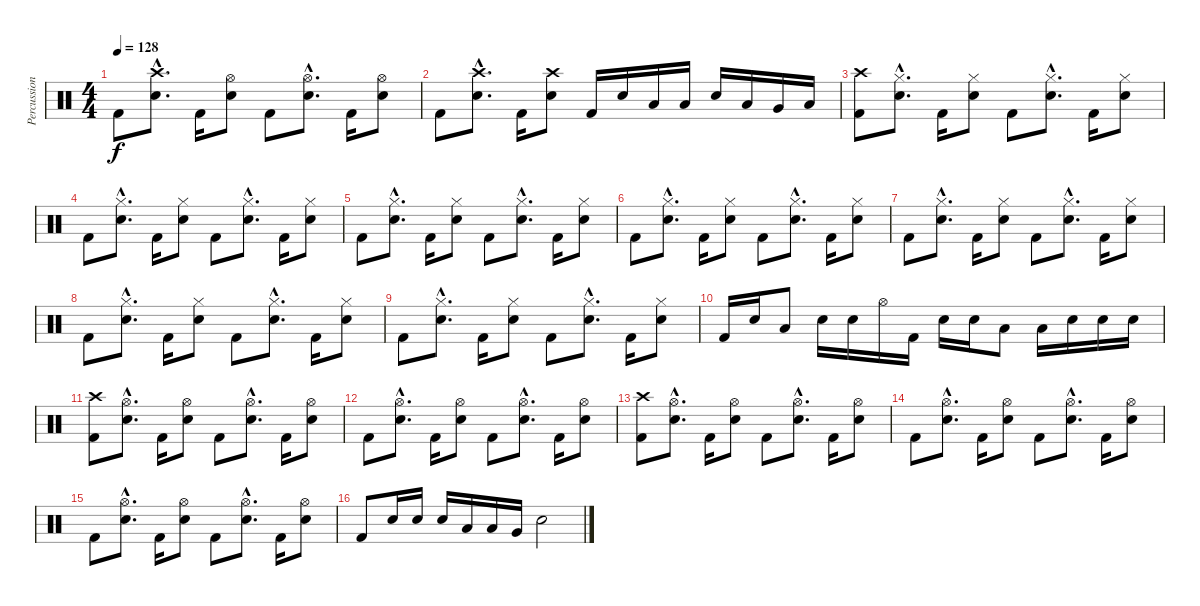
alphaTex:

\track ("Percussions" "Percussion") {instrument percussion}
\staff {score}
\articulation defaults
\ts (4 4)
\tempo 128
\clef neutral
\ks c "Kick (hit) 2".8{dy f}
("Crash high (hit)"{hac} "Electric Snare (hit)"{hac}).8{d} "Kick (hit) 2".16 ("Hi-Hat (open)" "Electric Snare (hit)").8 "Kick (hit) 2".8 ("Hi-Hat (open)"{hac} "Electric Snare (hit)"{hac}).8{d} "Kick (hit) 2".16 ("Hi-Hat (open)" "Electric Snare (hit)").8 |
"Kick (hit) 2".8 ("Crash high (hit)"{hac} "Electric Snare (hit)"{hac}).8{d} "Kick (hit) 2".16 ("Crash high (hit)" "Electric Snare (hit)").8 "Kick (hit) 2".16 "Electric Snare (hit)".16 "Low Tom (hit)".16 "Low Tom (hit)".16 "Electric Snare (hit)".16 "Low Tom (hit)".16 "Very Low Tom (hit)".16 "Low Floor Tom (hit)".16 |
("Crash high (hit)" "Kick (hit) 2").8 ("Hi-Hat (closed)"{hac} "Electric Snare (hit)"{hac}).8{d} "Kick (hit) 2".16 ("Hi-Hat (closed)" "Electric Snare (hit)").8 "Kick (hit) 2".8 ("Hi-Hat (closed)"{hac} "Electric Snare (hit)"{hac}).8{d} "Kick (hit) 2".16 ("Hi-Hat (closed)" "Electric Snare (hit)").8 |
"Kick (hit) 2".8 ("Hi-Hat (closed)"{hac} "Electric Snare (hit)"{hac}).8{d} "Kick (hit) 2".16 ("Hi-Hat (closed)" "Electric Snare (hit)").8 "Kick (hit) 2".8 ("Hi-Hat (closed)"{hac} "Electric Snare (hit)"{hac}).8{d} "Kick (hit) 2".16 ("Hi-Hat (closed)" "Electric Snare (hit)").8 |
"Kick (hit) 2".8 ("Hi-Hat (closed)"{hac} "Electric Snare (hit)"{hac}).8{d} "Kick (hit) 2".16 ("Hi-Hat (closed)" "Electric Snare (hit)").8 "Kick (hit) 2".8 ("Hi-Hat (closed)"{hac} "Electric Snare (hit)"{hac}).8{d} "Kick (hit) 2".16 ("Hi-Hat (closed)" "Electric Snare (hit)").8 |
"Kick (hit) 2".8 ("Hi-Hat (closed)"{hac} "Electric Snare (hit)"{hac}).8{d} "Kick (hit) 2".16 ("Hi-Hat (closed)" "Electric Snare (hit)").8 "Kick (hit) 2".8 ("Hi-Hat (closed)"{hac} "Electric Snare (hit)"{hac}).8{d} "Kick (hit) 2".16 ("Hi-Hat (closed)" "Electric Snare (hit)").8 |
"Kick (hit) 2".8 ("Hi-Hat (closed)"{hac} "Electric Snare (hit)"{hac}).8{d} "Kick (hit) 2".16 ("Hi-Hat (closed)" "Electric Snare (hit)").8 "Kick (hit) 2".8 ("Hi-Hat (closed)"{hac} "Electric Snare (hit)"{hac}).8{d} "Kick (hit) 2".16 ("Hi-Hat (closed)" "Electric Snare (hit)").8 |
"Kick (hit) 2".8 ("Hi-Hat (closed)"{hac} "Electric Snare (hit)"{hac}).8{d} "Kick (hit) 2".16 ("Hi-Hat (closed)" "Electric Snare (hit)").8 "Kick (hit) 2".8 ("Hi-Hat (closed)"{hac} "Electric Snare (hit)"{hac}).8{d} "Kick (hit) 2".16 ("Hi-Hat (closed)" "Electric Snare (hit)").8 |
"Kick (hit) 2".8 ("Hi-Hat (closed)"{hac} "Electric Snare (hit)"{hac}).8{d} "Kick (hit) 2".16 ("Hi-Hat (closed)" "Electric Snare (hit)").8 "Kick (hit) 2".8 ("Hi-Hat (closed)"{hac} "Electric Snare (hit)"{hac}).8{d} "Kick (hit) 2".16 ("Hi-Hat (closed)" "Electric Snare (hit)").8 |
"Kick (hit) 2".16 "Electric Snare (hit)".16 "Low Tom (hit)".8 "Electric Snare (hit)".16 "Electric Snare (hit)".16 "Hi-Hat (open)".16 "Kick (hit) 2".16 "Electric Snare (hit)".16 "Electric Snare (hit)".16 "Low Tom (hit)".8 "Low Tom (hit)".16 "Electric Snare (hit)".16 "Electric Snare (hit)".16 "Electric Snare (hit)".16 |
("Crash high (hit)" "Kick (hit) 2").8 ("Hi-Hat (open)"{hac} "Electric Snare (hit)"{hac}).8{d} "Kick (hit) 2".16 ("Hi-Hat (open)" "Electric Snare (hit)").8 "Kick (hit) 2".8 ("Hi-Hat (open)"{hac} "Electric Snare (hit)"{hac}).8{d} "Kick (hit) 2".16 ("Hi-Hat (open)" "Electric Snare (hit)").8 |
"Kick (hit) 2".8 ("Hi-Hat (open)"{hac} "Electric Snare (hit)"{hac}).8{d} "Kick (hit) 2".16 ("Hi-Hat (open)" "Electric Snare (hit)").8 "Kick (hit) 2".8 ("Hi-Hat (open)"{hac} "Electric Snare (hit)"{hac}).8{d} "Kick (hit) 2".16 ("Hi-Hat (open)" "Electric Snare (hit)").8 |
("Crash high (hit)" "Kick (hit) 2").8 ("Hi-Hat (open)"{hac} "Electric Snare (hit)"{hac}).8{d} "Kick (hit) 2".16 ("Hi-Hat (open)" "Electric Snare (hit)").8 "Kick (hit) 2".8 ("Hi-Hat (open)"{hac} "Electric Snare (hit)"{hac}).8{d} "Kick (hit) 2".16 ("Hi-Hat (open)" "Electric Snare (hit)").8 |
"Kick (hit) 2".8 ("Hi-Hat (open)"{hac} "Electric Snare (hit)"{hac}).8{d} "Kick (hit) 2".16 ("Hi-Hat (open)" "Electric Snare (hit)").8 "Kick (hit) 2".8 ("Hi-Hat (open)"{hac} "Electric Snare (hit)"{hac}).8{d} "Kick (hit) 2".16 ("Hi-Hat (open)" "Electric Snare (hit)").8 |
"Kick (hit) 2".8 ("Hi-Hat (open)"{hac} "Electric Snare (hit)"{hac}).8{d} "Kick (hit) 2".16 ("Hi-Hat (open)" "Electric Snare (hit)").8 "Kick (hit) 2".8 ("Hi-Hat (open)"{hac} "Electric Snare (hit)"{hac}).8{d} "Kick (hit) 2".16 ("Hi-Hat (open)" "Electric Snare (hit)").8 |
"Kick (hit) 2".8 "Electric Snare (hit)".16 "Electric Snare (hit)".16 "Electric Snare (hit)".16 "Low Tom (hit)".16 "Low Tom (hit)".16 "Very Low Tom (hit)".16 "Electric Snare (hit)".2
